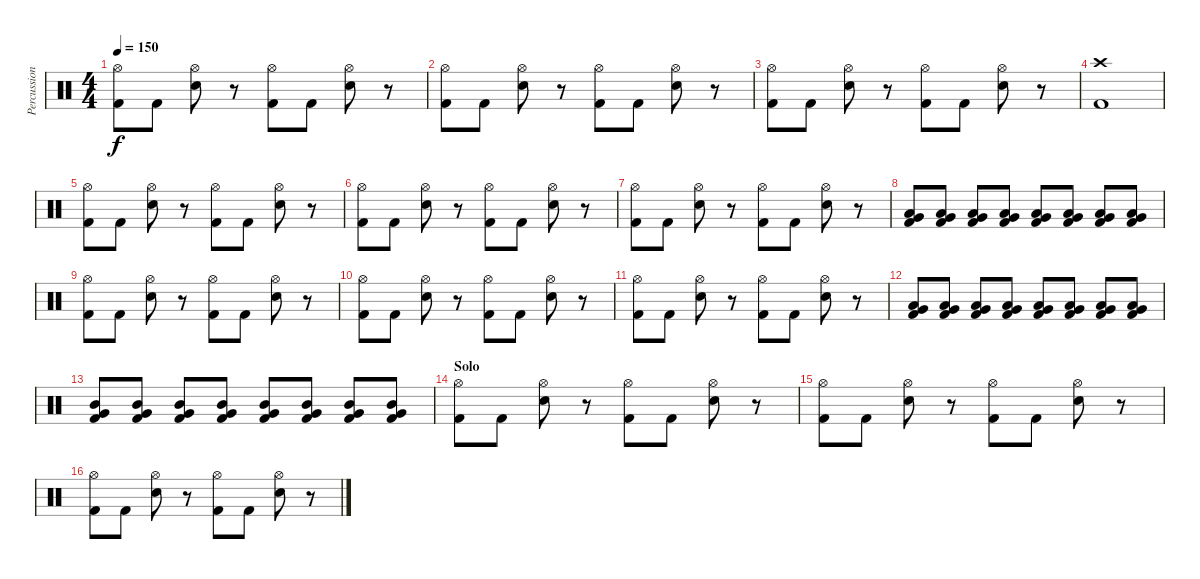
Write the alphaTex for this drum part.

\track ("Percussion" "Percussion") {instrument percussion}
\staff {score}
\articulation defaults
\ts (4 4)
\tempo 150
\clef neutral
\ks c
("Hi-Hat (open)" "Kick (hit) 2").8{dy f} "Kick (hit) 2".8 ("Hi-Hat (open)" "Electric Snare (hit)").8 r.8 ("Hi-Hat (open)" "Kick (hit) 2").8 "Kick (hit) 2".8 ("Hi-Hat (open)" "Electric Snare (hit)").8 r.8 |
("Hi-Hat (open)" "Kick (hit) 2").8 "Kick (hit) 2".8 ("Hi-Hat (open)" "Electric Snare (hit)").8 r.8 ("Hi-Hat (open)" "Kick (hit) 2").8 "Kick (hit) 2".8 ("Hi-Hat (open)" "Electric Snare (hit)").8 r.8 |
("Hi-Hat (open)" "Kick (hit) 2").8 "Kick (hit) 2".8 ("Hi-Hat (open)" "Electric Snare (hit)").8 r.8 ("Hi-Hat (open)" "Kick (hit) 2").8 "Kick (hit) 2".8 ("Hi-Hat (open)" "Electric Snare (hit)").8 r.8 |
("Crash high (hit)" "Kick (hit) 2").1 |
("Hi-Hat (open)" "Kick (hit) 2").8 "Kick (hit) 2".8 ("Hi-Hat (open)" "Electric Snare (hit)").8 r.8 ("Hi-Hat (open)" "Kick (hit) 2").8 "Kick (hit) 2".8 ("Hi-Hat (open)" "Electric Snare (hit)").8 r.8 |
("Hi-Hat (open)" "Kick (hit) 2").8 "Kick (hit) 2".8 ("Hi-Hat (open)" "Electric Snare (hit)").8 r.8 ("Hi-Hat (open)" "Kick (hit) 2").8 "Kick (hit) 2".8 ("Hi-Hat (open)" "Electric Snare (hit)").8 r.8 |
("Hi-Hat (open)" "Kick (hit) 2").8 "Kick (hit) 2".8 ("Hi-Hat (open)" "Electric Snare (hit)").8 r.8 ("Hi-Hat (open)" "Kick (hit) 2").8 "Kick (hit) 2".8 ("Hi-Hat (open)" "Electric Snare (hit)").8 r.8 |
("Low Tom (hit)" "Very Low Tom (hit)" "Kick (hit) 2").8 ("Low Tom (hit)" "Very Low Tom (hit)" "Kick (hit) 2").8 ("Low Tom (hit)" "Very Low Tom (hit)" "Kick (hit) 2").8 ("Low Tom (hit)" "Very Low Tom (hit)" "Kick (hit) 2").8 ("Low Tom (hit)" "Very Low Tom (hit)" "Kick (hit) 2").8 ("Low Tom (hit)" "Very Low Tom (hit)" "Kick (hit) 2").8 ("Low Tom (hit)" "Very Low Tom (hit)" "Kick (hit) 2").8 ("Low Tom (hit)" "Very Low Tom (hit)" "Kick (hit) 2").8 |
("Hi-Hat (open)" "Kick (hit) 2").8 "Kick (hit) 2".8 ("Hi-Hat (open)" "Electric Snare (hit)").8 r.8 ("Hi-Hat (open)" "Kick (hit) 2").8 "Kick (hit) 2".8 ("Hi-Hat (open)" "Electric Snare (hit)").8 r.8 |
("Hi-Hat (open)" "Kick (hit) 2").8 "Kick (hit) 2".8 ("Hi-Hat (open)" "Electric Snare (hit)").8 r.8 ("Hi-Hat (open)" "Kick (hit) 2").8 "Kick (hit) 2".8 ("Hi-Hat (open)" "Electric Snare (hit)").8 r.8 |
("Hi-Hat (open)" "Kick (hit) 2").8 "Kick (hit) 2".8 ("Hi-Hat (open)" "Electric Snare (hit)").8 r.8 ("Hi-Hat (open)" "Kick (hit) 2").8 "Kick (hit) 2".8 ("Hi-Hat (open)" "Electric Snare (hit)").8 r.8 |
("Low Tom (hit)" "Very Low Tom (hit)" "Kick (hit) 2").8 ("Low Tom (hit)" "Very Low Tom (hit)" "Kick (hit) 2").8 ("Low Tom (hit)" "Very Low Tom (hit)" "Kick (hit) 2").8 ("Low Tom (hit)" "Very Low Tom (hit)" "Kick (hit) 2").8 ("Low Tom (hit)" "Very Low Tom (hit)" "Kick (hit) 2").8 ("Low Tom (hit)" "Very Low Tom (hit)" "Kick (hit) 2").8 ("Low Tom (hit)" "Very Low Tom (hit)" "Kick (hit) 2").8 ("Low Tom (hit)" "Very Low Tom (hit)" "Kick (hit) 2").8 |
("Mid Tom (hit)" "Very Low Tom (hit)" "Kick (hit) 2").8 ("Mid Tom (hit)" "Very Low Tom (hit)" "Kick (hit) 2").8 ("Mid Tom (hit)" "Very Low Tom (hit)" "Kick (hit) 2").8 ("Mid Tom (hit)" "Very Low Tom (hit)" "Kick (hit) 2").8 ("Mid Tom (hit)" "Very Low Tom (hit)" "Kick (hit) 2").8 ("Mid Tom (hit)" "Very Low Tom (hit)" "Kick (hit) 2").8 ("Mid Tom (hit)" "Very Low Tom (hit)" "Kick (hit) 2").8 ("Mid Tom (hit)" "Very Low Tom (hit)" "Kick (hit) 2").8 |
\section ("" "Solo")
("Hi-Hat (open)" "Kick (hit) 2").8 "Kick (hit) 2".8 ("Hi-Hat (open)" "Electric Snare (hit)").8 r.8 ("Hi-Hat (open)" "Kick (hit) 2").8 "Kick (hit) 2".8 ("Hi-Hat (open)" "Electric Snare (hit)").8 r.8 |
("Hi-Hat (open)" "Kick (hit) 2").8 "Kick (hit) 2".8 ("Hi-Hat (open)" "Electric Snare (hit)").8 r.8 ("Hi-Hat (open)" "Kick (hit) 2").8 "Kick (hit) 2".8 ("Hi-Hat (open)" "Electric Snare (hit)").8 r.8 |
("Hi-Hat (open)" "Kick (hit) 2").8 "Kick (hit) 2".8 ("Hi-Hat (open)" "Electric Snare (hit)").8 r.8 ("Hi-Hat (open)" "Kick (hit) 2").8 "Kick (hit) 2".8 ("Hi-Hat (open)" "Electric Snare (hit)").8 r.8
